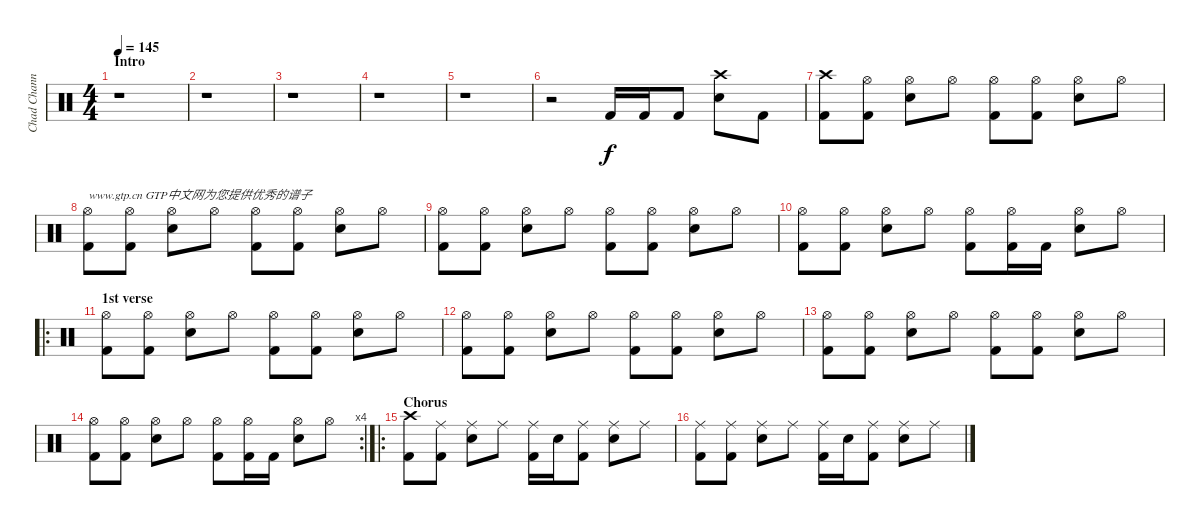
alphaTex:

\track ("Chad Channing" "Chad Chann") {instrument percussion}
\staff {score}
\articulation defaults
\ts (4 4)
\section ("" "Intro")
\tempo 145
\clef neutral
\ks c
r.1{dy f} |
r.1 |
r.1 |
r.1 |
r.1 |
r.2 "Kick (hit) 2".16 "Kick (hit) 2".16 "Kick (hit) 2".8 ("Crash high (hit)" "Electric Snare (hit)").8 "Kick (hit) 2".8 |
("Crash high (hit)" "Kick (hit) 2").8 ("Hi-Hat (open)" "Kick (hit) 2").8 ("Hi-Hat (open)" "Electric Snare (hit)").8 "Hi-Hat (open)".8 ("Hi-Hat (open)" "Kick (hit) 2").8 ("Hi-Hat (open)" "Kick (hit) 2").8 ("Hi-Hat (open)" "Electric Snare (hit)").8 "Hi-Hat (open)".8 |
("Hi-Hat (open)" "Kick (hit) 2").8{txt "www.gtp.cn GTP中文网为您提供优秀的谱子"} ("Hi-Hat (open)" "Kick (hit) 2").8 ("Hi-Hat (open)" "Electric Snare (hit)").8 "Hi-Hat (open)".8 ("Hi-Hat (open)" "Kick (hit) 2").8 ("Hi-Hat (open)" "Kick (hit) 2").8 ("Hi-Hat (open)" "Electric Snare (hit)").8 "Hi-Hat (open)".8 |
("Hi-Hat (open)" "Kick (hit) 2").8 ("Hi-Hat (open)" "Kick (hit) 2").8 ("Hi-Hat (open)" "Electric Snare (hit)").8 "Hi-Hat (open)".8 ("Hi-Hat (open)" "Kick (hit) 2").8 ("Hi-Hat (open)" "Kick (hit) 2").8 ("Hi-Hat (open)" "Electric Snare (hit)").8 "Hi-Hat (open)".8 |
("Hi-Hat (open)" "Kick (hit) 2").8 ("Hi-Hat (open)" "Kick (hit) 2").8 ("Hi-Hat (open)" "Electric Snare (hit)").8 "Hi-Hat (open)".8 ("Hi-Hat (open)" "Kick (hit) 2").8 ("Hi-Hat (open)" "Kick (hit) 2").16 "Kick (hit) 2".16 ("Hi-Hat (open)" "Electric Snare (hit)").8 "Hi-Hat (open)".8 |
\ro
\section ("" "1st verse")
("Hi-Hat (open)" "Kick (hit) 2").8 ("Hi-Hat (open)" "Kick (hit) 2").8 ("Hi-Hat (open)" "Electric Snare (hit)").8 "Hi-Hat (open)".8 ("Hi-Hat (open)" "Kick (hit) 2").8 ("Hi-Hat (open)" "Kick (hit) 2").8 ("Hi-Hat (open)" "Electric Snare (hit)").8 "Hi-Hat (open)".8 |
("Hi-Hat (open)" "Kick (hit) 2").8 ("Hi-Hat (open)" "Kick (hit) 2").8 ("Hi-Hat (open)" "Electric Snare (hit)").8 "Hi-Hat (open)".8 ("Hi-Hat (open)" "Kick (hit) 2").8 ("Hi-Hat (open)" "Kick (hit) 2").8 ("Hi-Hat (open)" "Electric Snare (hit)").8 "Hi-Hat (open)".8 |
("Hi-Hat (open)" "Kick (hit) 2").8 ("Hi-Hat (open)" "Kick (hit) 2").8 ("Hi-Hat (open)" "Electric Snare (hit)").8 "Hi-Hat (open)".8 ("Hi-Hat (open)" "Kick (hit) 2").8 ("Hi-Hat (open)" "Kick (hit) 2").8 ("Hi-Hat (open)" "Electric Snare (hit)").8 "Hi-Hat (open)".8 |
\rc 4
("Hi-Hat (open)" "Kick (hit) 2").8 ("Hi-Hat (open)" "Kick (hit) 2").8 ("Hi-Hat (open)" "Electric Snare (hit)").8 "Hi-Hat (open)".8 ("Hi-Hat (open)" "Kick (hit) 2").8 ("Hi-Hat (open)" "Kick (hit) 2").16 "Kick (hit) 2".16 ("Hi-Hat (open)" "Electric Snare (hit)").8 "Hi-Hat (open)".8 |
\ro
\section ("" "Chorus")
("Crash high (hit)" "Kick (hit) 2").8 ("Ride (middle)" "Kick (hit) 2").8 ("Ride (middle)" "Electric Snare (hit)").8 "Ride (middle)".8 ("Ride (middle)" "Kick (hit) 2").16 "Electric Snare (hit)".16 ("Ride (middle)" "Kick (hit) 2").8 ("Ride (middle)" "Electric Snare (hit)").8 "Ride (middle)".8 |
("Ride (middle)" "Kick (hit) 2").8 ("Ride (middle)" "Kick (hit) 2").8 ("Ride (middle)" "Electric Snare (hit)").8 "Ride (middle)".8 ("Ride (middle)" "Kick (hit) 2").16 "Electric Snare (hit)".16 ("Ride (middle)" "Kick (hit) 2").8 ("Ride (middle)" "Electric Snare (hit)").8 "Ride (middle)".8
